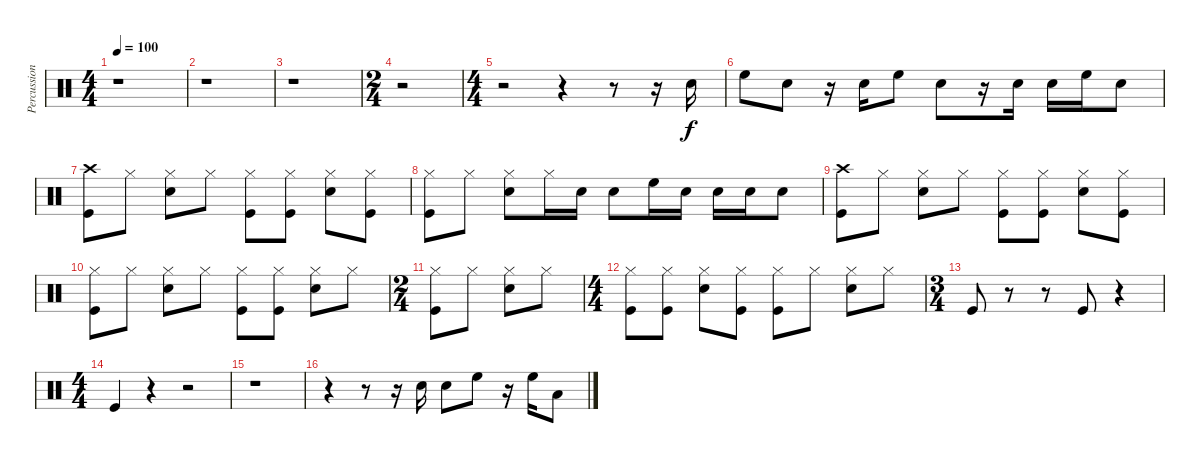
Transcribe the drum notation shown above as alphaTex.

\track ("Percussion" "Percussion") {instrument percussion}
\staff {score}
\articulation defaults
\ts (4 4)
\tempo 100
\clef neutral
\ks c
r.1{dy f} |
r.1 |
r.1 |
\ts (2 4)
r.2 |
\ts (4 4)
r.2 r.4 r.8 r.16 "Snare (hit) 2".16 |
"High Floor Tom (hit)".8 "Snare (hit) 2".8 r.16 "Snare (hit) 2".16 "High Floor Tom (hit)".8 "Snare (hit) 2".8 r.16 "Snare (hit) 2".16 "Snare (hit) 2".16 "High Floor Tom (hit)".16 "Snare (hit) 2".8 |
("Crash high (hit)" "Kick (hit)").8 "Hi-Hat (closed)".8 ("Hi-Hat (closed)" "Snare (hit) 2").8 "Hi-Hat (closed)".8 ("Hi-Hat (closed)" "Kick (hit)").8 ("Hi-Hat (closed)" "Kick (hit)").8 ("Hi-Hat (closed)" "Snare (hit) 2").8 ("Hi-Hat (closed)" "Kick (hit)").8 |
("Hi-Hat (closed)" "Kick (hit)").8 "Hi-Hat (closed)".8 ("Hi-Hat (closed)" "Snare (hit) 2").8 "Hi-Hat (closed)".16 "Snare (hit) 2".16 "Snare (hit) 2".8 "High Floor Tom (hit)".16 "Snare (hit) 2".16 "Snare (hit) 2".16 "Snare (hit) 2".16 "Snare (hit) 2".8 |
("Crash high (hit)" "Kick (hit)").8 "Hi-Hat (closed)".8 ("Hi-Hat (closed)" "Snare (hit) 2").8 "Hi-Hat (closed)".8 ("Hi-Hat (closed)" "Kick (hit)").8 ("Hi-Hat (closed)" "Kick (hit)").8 ("Hi-Hat (closed)" "Snare (hit) 2").8 ("Hi-Hat (closed)" "Kick (hit)").8 |
("Hi-Hat (closed)" "Kick (hit)").8 "Hi-Hat (closed)".8 ("Hi-Hat (closed)" "Snare (hit) 2").8 "Hi-Hat (closed)".8 ("Hi-Hat (closed)" "Kick (hit)").8 ("Hi-Hat (closed)" "Kick (hit)").8 ("Hi-Hat (closed)" "Snare (hit) 2").8 "Hi-Hat (closed)".8 |
\ts (2 4)
("Hi-Hat (closed)" "Kick (hit)").8 "Hi-Hat (closed)".8 ("Hi-Hat (closed)" "Snare (hit) 2").8 "Hi-Hat (closed)".8 |
\ts (4 4)
("Hi-Hat (closed)" "Kick (hit)").8 ("Hi-Hat (closed)" "Kick (hit)").8 ("Hi-Hat (closed)" "Snare (hit) 2").8 ("Hi-Hat (closed)" "Kick (hit)").8 ("Hi-Hat (closed)" "Kick (hit)").8 "Hi-Hat (closed)".8 ("Hi-Hat (closed)" "Snare (hit) 2").8 "Hi-Hat (closed)".8 |
\ts (3 4)
"Kick (hit)".8 r.8 r.8 "Kick (hit)".8 r.4 |
\ts (4 4)
"Kick (hit)".4 r.4 r.2 |
r.1 |
r.4 r.8 r.16 "Snare (hit) 2".16 "Snare (hit) 2".8 "High Floor Tom (hit)".8 r.16 "High Floor Tom (hit)".16 "Low Tom (hit)".8
